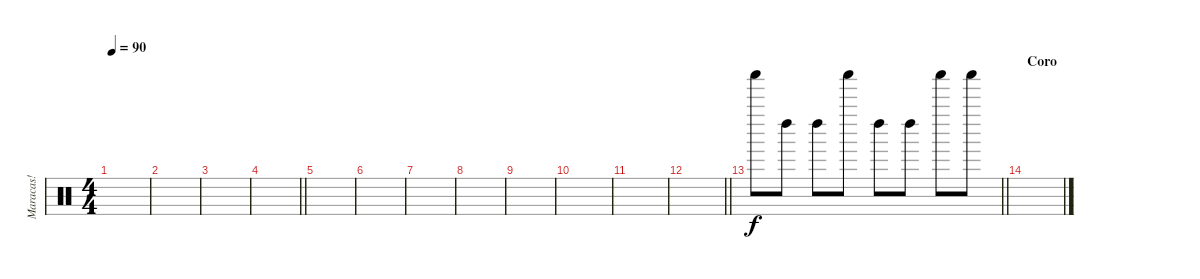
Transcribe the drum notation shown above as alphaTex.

\track ("Maracas!" "Maracas!") {instrument percussion}
\staff {score}
\articulation defaults
\ts (4 4)
\tempo 90
\clef neutral
\ks c
|
|
|
\barLineRight lightlight
|
|
|
|
|
|
|
|
\barLineRight lightlight
|
\barLineRight lightlight "Shaker (hit)".8 "Left Maraca (hit)".8 "Left Maraca (hit)".8 "Shaker (hit)".8 "Left Maraca (hit)".8 "Left Maraca (hit)".8 "Shaker (hit)".8 "Shaker (hit)".8
|
\section ("" "Coro")
